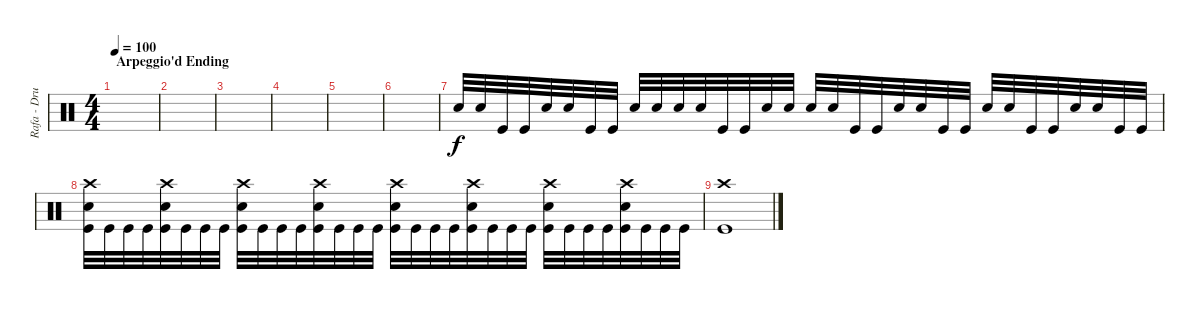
\track ("Rafa - Drums" "Rafa - Dru") {instrument percussion}
\staff {score}
\articulation defaults
\ts (4 4)
\section ("" "Arpeggio'd Ending")
\tempo 100
\clef neutral
\ks c
|
|
|
|
|
|
"Electric Snare (hit)".32 "Electric Snare (hit)".32 "Kick (hit)".32 "Kick (hit)".32 "Electric Snare (hit)".32 "Electric Snare (hit)".32 "Kick (hit)".32 "Kick (hit)".32 "Electric Snare (hit)".32 "Electric Snare (hit)".32 "Electric Snare (hit)".32 "Electric Snare (hit)".32 "Kick (hit)".32 "Kick (hit)".32 "Electric Snare (hit)".32 "Electric Snare (hit)".32 "Electric Snare (hit)".32 "Electric Snare (hit)".32 "Kick (hit)".32 "Kick (hit)".32 "Electric Snare (hit)".32 "Electric Snare (hit)".32 "Kick (hit)".32 "Kick (hit)".32 "Electric Snare (hit)".32 "Electric Snare (hit)".32 "Kick (hit)".32 "Kick (hit)".32 "Electric Snare (hit)".32 "Electric Snare (hit)".32 "Kick (hit)".32 "Kick (hit)".32 |
("Crash high (hit)" "Electric Snare (hit)" "Kick (hit)").32 "Kick (hit)".32 "Kick (hit)".32 "Kick (hit)".32 ("Crash high (hit)" "Electric Snare (hit)" "Kick (hit)").32 "Kick (hit)".32 "Kick (hit)".32 "Kick (hit)".32 ("Crash high (hit)" "Electric Snare (hit)" "Kick (hit)").32 "Kick (hit)".32 "Kick (hit)".32 "Kick (hit)".32 ("Crash high (hit)" "Electric Snare (hit)" "Kick (hit)").32 "Kick (hit)".32 "Kick (hit)".32 "Kick (hit)".32 ("Crash high (hit)" "Electric Snare (hit)" "Kick (hit)").32 "Kick (hit)".32 "Kick (hit)".32 "Kick (hit)".32 ("Crash high (hit)" "Electric Snare (hit)" "Kick (hit)").32 "Kick (hit)".32 "Kick (hit)".32 "Kick (hit)".32 ("Crash high (hit)" "Electric Snare (hit)" "Kick (hit)").32 "Kick (hit)".32 "Kick (hit)".32 "Kick (hit)".32 ("Crash high (hit)" "Electric Snare (hit)" "Kick (hit)").32 "Kick (hit)".32 "Kick (hit)".32 "Kick (hit)".32 |
("Crash high (hit)" "Kick (hit)").1
